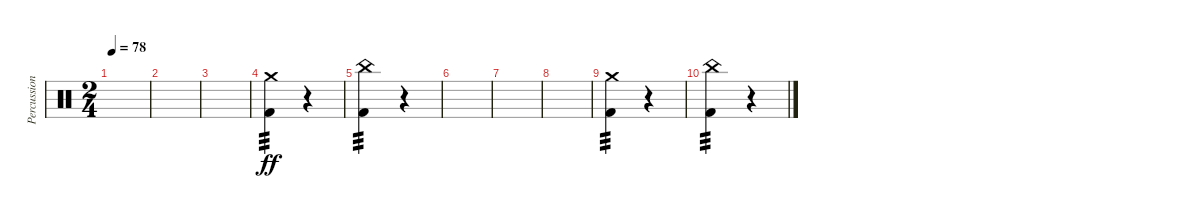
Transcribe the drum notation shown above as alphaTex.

\track ("Percussion" "Percussion") {instrument percussion}
\staff {score}
\articulation defaults
\ts (2 4)
\tempo 78
\clef neutral
\ks c
|
|
|
("Crash medium (hit)" "Kick (hit) 2").4{tp 3 dy ff} r.4 |
("China (hit)" "Kick (hit) 2").4{tp 3} r.4 |
|
|
|
("Crash medium (hit)" "Kick (hit) 2").4{tp 3} r.4 |
("China (hit)" "Kick (hit) 2").4{tp 3} r.4
